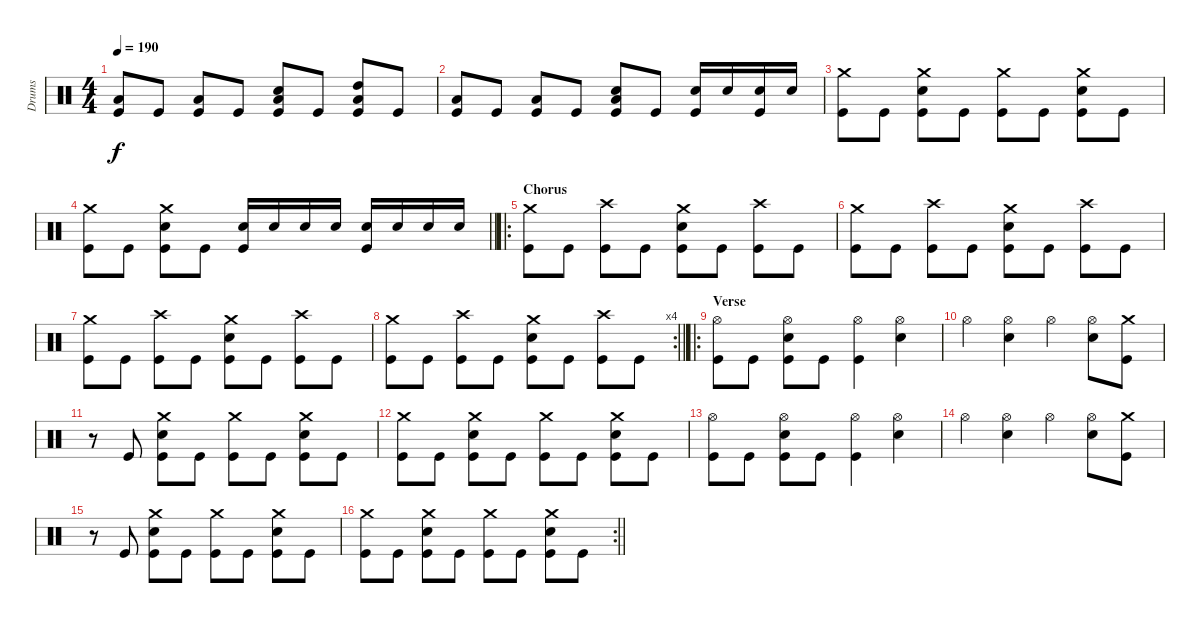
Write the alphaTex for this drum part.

\track ("Drums" "Drums") {instrument percussion}
\staff {score}
\articulation defaults
\ts (4 4)
\tempo 190
\clef neutral
\ks c
("Low Floor Tom (hit)" "Kick (hit)").8{dy f} "Kick (hit)".8 ("Low Floor Tom (hit)" "Kick (hit)").8 "Kick (hit)".8 ("Snare (hit) 2" "Low Floor Tom (hit)" "Kick (hit)").8 "Kick (hit)".8 ("High Tom (hit)" "Low Floor Tom (hit)" "Kick (hit)").8 "Kick (hit)".8 |
("Low Floor Tom (hit)" "Kick (hit)").8 "Kick (hit)".8 ("Low Floor Tom (hit)" "Kick (hit)").8 "Kick (hit)".8 ("Snare (hit) 2" "Low Floor Tom (hit)" "Kick (hit)").8 "Kick (hit)".8 ("Snare (hit) 2" "Kick (hit)").16 "Snare (hit) 2".16 ("Snare (hit) 2" "Kick (hit)").16 "Snare (hit) 2".16 |
("Crash medium (hit)" "Kick (hit)").8 "Kick (hit)".8 ("Crash medium (hit)" "Snare (hit) 2" "Kick (hit)").8 "Kick (hit)".8 ("Crash medium (hit)" "Kick (hit)").8 "Kick (hit)".8 ("Crash medium (hit)" "Snare (hit) 2" "Kick (hit)").8 "Kick (hit)".8 |
\barLineRight lightlight
("Crash medium (hit)" "Kick (hit)").8 "Kick (hit)".8 ("Crash medium (hit)" "Snare (hit) 2" "Kick (hit)").8 "Kick (hit)".8 ("Snare (hit) 2" "Kick (hit)").16 "Snare (hit) 2".16 "Snare (hit) 2".16 "Snare (hit) 2".16 ("Snare (hit) 2" "Kick (hit)").16 "Snare (hit) 2".16 "Snare (hit) 2".16 "Snare (hit) 2".16 |
\ro
\section ("" "Chorus")
("Crash medium (hit)" "Kick (hit)").8 "Kick (hit)".8 ("Crash high (hit)" "Kick (hit)").8 "Kick (hit)".8 ("Crash medium (hit)" "Snare (hit) 2" "Kick (hit)").8 "Kick (hit)".8 ("Crash high (hit)" "Kick (hit)").8 "Kick (hit)".8 |
("Crash medium (hit)" "Kick (hit)").8 "Kick (hit)".8 ("Crash high (hit)" "Kick (hit)").8 "Kick (hit)".8 ("Crash medium (hit)" "Snare (hit) 2" "Kick (hit)").8 "Kick (hit)".8 ("Crash high (hit)" "Kick (hit)").8 "Kick (hit)".8 |
("Crash medium (hit)" "Kick (hit)").8 "Kick (hit)".8 ("Crash high (hit)" "Kick (hit)").8 "Kick (hit)".8 ("Crash medium (hit)" "Snare (hit) 2" "Kick (hit)").8 "Kick (hit)".8 ("Crash high (hit)" "Kick (hit)").8 "Kick (hit)".8 |
\rc 4
\barLineRight lightlight
("Crash medium (hit)" "Kick (hit)").8 "Kick (hit)".8 ("Crash high (hit)" "Kick (hit)").8 "Kick (hit)".8 ("Crash medium (hit)" "Snare (hit) 2" "Kick (hit)").8 "Kick (hit)".8 ("Crash high (hit)" "Kick (hit)").8 "Kick (hit)".8 |
\ro
\section ("" "Verse")
("Hi-Hat (open)" "Kick (hit)").8 "Kick (hit)".8 ("Hi-Hat (open)" "Snare (hit) 2" "Kick (hit)").8 "Kick (hit)".8 ("Hi-Hat (open)" "Kick (hit)").4 ("Hi-Hat (open)" "Snare (hit) 2").4 |
"Hi-Hat (open)".4 ("Hi-Hat (open)" "Snare (hit) 2").4 "Hi-Hat (open)".4 ("Hi-Hat (open)" "Snare (hit) 2").8 ("Crash medium (hit)" "Kick (hit)").8 |
r.8 "Kick (hit)".8 ("Crash medium (hit)" "Snare (hit) 2" "Kick (hit)").8 "Kick (hit)".8 ("Crash medium (hit)" "Kick (hit)").8 "Kick (hit)".8 ("Crash medium (hit)" "Snare (hit) 2" "Kick (hit)").8 "Kick (hit)".8 |
("Crash medium (hit)" "Kick (hit)").8 "Kick (hit)".8 ("Crash medium (hit)" "Snare (hit) 2" "Kick (hit)").8 "Kick (hit)".8 ("Crash medium (hit)" "Kick (hit)").8 "Kick (hit)".8 ("Crash medium (hit)" "Snare (hit) 2" "Kick (hit)").8 "Kick (hit)".8 |
("Hi-Hat (open)" "Kick (hit)").8 "Kick (hit)".8 ("Hi-Hat (open)" "Snare (hit) 2" "Kick (hit)").8 "Kick (hit)".8 ("Hi-Hat (open)" "Kick (hit)").4 ("Hi-Hat (open)" "Snare (hit) 2").4 |
"Hi-Hat (open)".4 ("Hi-Hat (open)" "Snare (hit) 2").4 "Hi-Hat (open)".4 ("Hi-Hat (open)" "Snare (hit) 2").8 ("Crash medium (hit)" "Kick (hit)").8 |
r.8 "Kick (hit)".8 ("Crash medium (hit)" "Snare (hit) 2" "Kick (hit)").8 "Kick (hit)".8 ("Crash medium (hit)" "Kick (hit)").8 "Kick (hit)".8 ("Crash medium (hit)" "Snare (hit) 2" "Kick (hit)").8 "Kick (hit)".8 |
\rc 2
\barLineRight lightlight
("Crash medium (hit)" "Kick (hit)").8 "Kick (hit)".8 ("Crash medium (hit)" "Snare (hit) 2" "Kick (hit)").8 "Kick (hit)".8 ("Crash medium (hit)" "Kick (hit)").8 "Kick (hit)".8 ("Crash medium (hit)" "Snare (hit) 2" "Kick (hit)").8 "Kick (hit)".8
